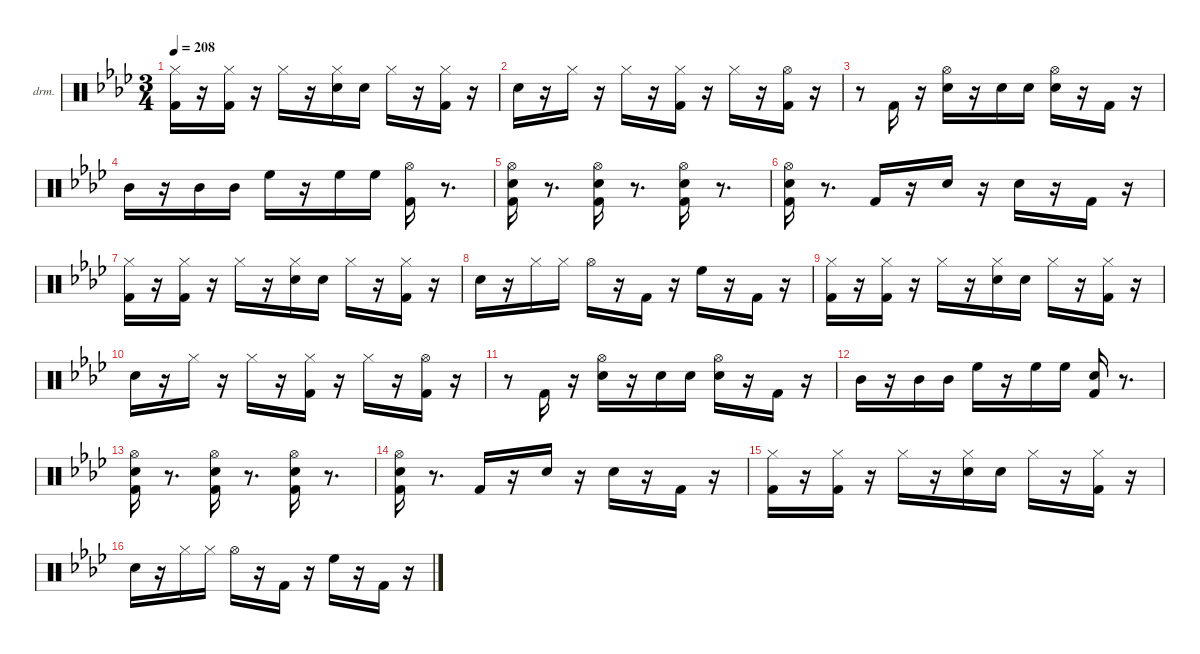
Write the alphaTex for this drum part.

\hideDynamics
\bracketExtendMode nobrackets
\firstSystemTrackNameOrientation horizontal
\otherSystemsTrackNameOrientation horizontal
\track ("EZdrummer 3" "drm.") {instrument percussion}
\staff {score}
\articulation defaults
\ts (3 4)
\tempo 208
\clef neutral
\ks fminor
("Kick (hit) 2"{acc forcenatural} "Hi-Hat (closed)"{acc b}).16{dy ff beam Down} r.16{beam Down} ("Kick (hit) 2"{acc forcenatural} "Hi-Hat (closed)"{acc b}).16{beam Down} r.16{beam Down} "Hi-Hat (closed)"{acc b}.16{dy pp beam Down} r.16{beam Down} ("Snare (hit) 2"{acc forcenatural} "Hi-Hat (closed)"{acc b}).16{dy mf beam Down} "Snare (hit) 2"{acc forcenatural}.16{dy ppp beam Down} "Hi-Hat (closed)"{acc b}.16{dy mf beam Down} r.16{beam Down} ("Kick (hit) 2"{acc forcenatural} "Hi-Hat (closed)"{acc b}).16{dy ff beam Down} r.16{beam Down} |
"Snare (hit) 2"{acc forcenatural}.16{dy fff beam Down} r.16{beam Down} "Hi-Hat (closed)"{acc b}.16{dy mf beam Down} r.16{beam Down} "Hi-Hat (closed)"{acc b}.16{dy fff beam Down} r.16{beam Down} ("Kick (hit) 2"{acc forcenatural} "Hi-Hat (closed)"{acc b}).16{dy ff beam Down} r.16{beam Down} "Hi-Hat (closed)"{acc b}.16{dy fff beam Down} r.16{beam Down} ("Kick (hit) 2"{acc forcenatural} "Hi-Hat (open)"{acc b}).16{dy f beam Down} r.16{beam Down} |
r.8{beam Down} "Kick (hit) 2"{acc forcenatural}.16{dy mf beam Up} r.16{beam Up} ("Snare (hit) 2"{acc forcenatural} "Hi-Hat (open)"{acc b}).16{dy ff beam Down} r.16{beam Down} "Snare (hit) 2"{acc forcenatural}.16{dy pp beam Down} "Snare (hit) 2"{acc forcenatural}.16{dy ppp beam Down} ("Snare (hit) 2"{acc forcenatural} "Hi-Hat (open)"{acc b}).16{dy fff beam Down} r.16{beam Down} "Kick (hit) 2"{acc forcenatural}.16{dy ff beam Up} r.16{beam Up} |
"Mid Tom (hit)"{acc forcenatural}.16{beam Down} r.16{beam Down} "Mid Tom (hit)"{acc forcenatural}.16{beam Up} "Mid Tom (hit)"{acc forcenatural}.16{beam Up} "High Floor Tom (hit)"{acc forcenatural}.16{beam Down} r.16{beam Down} "High Floor Tom (hit)"{acc forcenatural}.16{beam Down} "High Floor Tom (hit)"{acc forcenatural}.16{beam Down} ("Kick (hit) 2"{acc forcenatural} "Hi-Hat (open)"{acc b}).16{beam Down} r.8{d beam Down} |
("Kick (hit) 2"{acc forcenatural} "Snare (hit) 2"{acc forcenatural} "Hi-Hat (open)"{acc b}).16{dy fff beam Down} r.8{d beam Down} ("Kick (hit) 2"{acc forcenatural} "Snare (hit) 2"{acc forcenatural} "Hi-Hat (open)"{acc b}).16{dy mf beam Down} r.8{d beam Down} ("Kick (hit) 2"{acc forcenatural} "Snare (hit) 2"{acc forcenatural} "Hi-Hat (open)"{acc b}).16{dy f beam Down} r.8{d beam Down} |
("Kick (hit) 2"{acc forcenatural} "Snare (hit) 2"{acc forcenatural} "Hi-Hat (open)"{acc b}).16{dy fff beam Down} r.8{d beam Down} "Kick (hit) 2"{acc forcenatural}.16{dy ff beam Up} r.16{beam Up} "Snare (hit) 2"{acc forcenatural}.16{dy f beam Down} r.16{beam Down} "Snare (hit) 2"{acc forcenatural}.16{dy pp beam Down} r.16{beam Down} "Kick (hit) 2"{acc forcenatural}.16{dy p beam Up} r.16{beam Up} |
("Kick (hit) 2"{acc forcenatural} "Hi-Hat (closed)"{acc b}).16{dy ff beam Down} r.16{beam Down} ("Kick (hit) 2"{acc forcenatural} "Hi-Hat (closed)"{acc b}).16{dy mf beam Down} r.16{beam Down} "Hi-Hat (closed)"{acc b}.16{dy pp beam Down} r.16{beam Down} ("Snare (hit) 2"{acc forcenatural} "Hi-Hat (closed)"{acc b}).16{dy mf beam Down} "Snare (hit) 2"{acc forcenatural}.16{dy ppp beam Down} "Hi-Hat (closed)"{acc b}.16{dy mf beam Down} r.16{beam Down} ("Kick (hit) 2"{acc forcenatural} "Hi-Hat (closed)"{acc b}).16{dy ff beam Down} r.16{beam Down} |
"Snare (hit) 2"{acc forcenatural}.16{dy fff beam Down} r.16{beam Down} "Hi-Hat (closed)"{acc b}.16{dy f beam Down} "Hi-Hat (closed)"{acc b}.16{dy mf beam Down} "Hi-Hat (open)"{acc b}.16{dy fff beam Down} r.16{beam Down} "Kick (hit) 2"{acc forcenatural}.16{dy ff beam Up} r.16{beam Up} "High Floor Tom (hit)"{acc forcenatural}.16{dy f beam Down} r.16{beam Down} "Kick (hit) 2"{acc forcenatural}.16{beam Up} r.16{beam Up} |
("Kick (hit) 2"{acc forcenatural} "Hi-Hat (closed)"{acc b}).16{dy ff beam Down} r.16{beam Down} ("Kick (hit) 2"{acc forcenatural} "Hi-Hat (closed)"{acc b}).16{beam Down} r.16{beam Down} "Hi-Hat (closed)"{acc b}.16{dy pp beam Down} r.16{beam Down} ("Snare (hit) 2"{acc forcenatural} "Hi-Hat (closed)"{acc b}).16{dy mf beam Down} "Snare (hit) 2"{acc forcenatural}.16{dy ppp beam Down} "Hi-Hat (closed)"{acc b}.16{dy mf beam Down} r.16{beam Down} ("Kick (hit) 2"{acc forcenatural} "Hi-Hat (closed)"{acc b}).16{dy ff beam Down} r.16{beam Down} |
"Snare (hit) 2"{acc forcenatural}.16{dy fff beam Down} r.16{beam Down} "Hi-Hat (closed)"{acc b}.16{dy mf beam Down} r.16{beam Down} "Hi-Hat (closed)"{acc b}.16{dy fff beam Down} r.16{beam Down} ("Kick (hit) 2"{acc forcenatural} "Hi-Hat (closed)"{acc b}).16{dy ff beam Down} r.16{beam Down} "Hi-Hat (closed)"{acc b}.16{dy fff beam Down} r.16{beam Down} ("Kick (hit) 2"{acc forcenatural} "Hi-Hat (open)"{acc b}).16{dy f beam Down} r.16{beam Down} |
r.8{beam Down} "Kick (hit) 2"{acc forcenatural}.16{dy mf beam Up} r.16{beam Up} ("Snare (hit) 2"{acc forcenatural} "Hi-Hat (open)"{acc b}).16{dy ff beam Down} r.16{beam Down} "Snare (hit) 2"{acc forcenatural}.16{dy pp beam Down} "Snare (hit) 2"{acc forcenatural}.16{dy ppp beam Down} ("Snare (hit) 2"{acc forcenatural} "Hi-Hat (open)"{acc b}).16{dy fff beam Down} r.16{beam Down} "Kick (hit) 2"{acc forcenatural}.16{dy ff beam Up} r.16{beam Up} |
"Mid Tom (hit)"{acc forcenatural}.16{beam Down} r.16{beam Down} "Mid Tom (hit)"{acc forcenatural}.16{beam Up} "Mid Tom (hit)"{acc forcenatural}.16{beam Up} "High Floor Tom (hit)"{acc forcenatural}.16{beam Down} r.16{beam Down} "High Floor Tom (hit)"{acc forcenatural}.16{beam Down} "High Floor Tom (hit)"{acc forcenatural}.16{beam Down} ("Kick (hit) 2"{acc forcenatural} "Snare (hit) 2"{acc forcenatural}).16{beam Up} r.8{d beam Up} |
("Kick (hit) 2"{acc forcenatural} "Snare (hit) 2"{acc forcenatural} "Hi-Hat (open)"{acc b}).16{dy fff beam Down} r.8{d beam Down} ("Kick (hit) 2"{acc forcenatural} "Snare (hit) 2"{acc forcenatural} "Hi-Hat (open)"{acc b}).16{dy mf beam Down} r.8{d beam Down} ("Kick (hit) 2"{acc forcenatural} "Snare (hit) 2"{acc forcenatural} "Hi-Hat (open)"{acc b}).16{dy f beam Down} r.8{d beam Down} |
("Kick (hit) 2"{acc forcenatural} "Snare (hit) 2"{acc forcenatural} "Hi-Hat (open)"{acc b}).16{dy fff beam Down} r.8{d beam Down} "Kick (hit) 2"{acc forcenatural}.16{dy ff beam Up} r.16{beam Up} "Snare (hit) 2"{acc forcenatural}.16{dy f beam Down} r.16{beam Down} "Snare (hit) 2"{acc forcenatural}.16{dy pp beam Down} r.16{beam Down} "Kick (hit) 2"{acc forcenatural}.16{dy p beam Up} r.16{beam Up} |
("Kick (hit) 2"{acc forcenatural} "Hi-Hat (closed)"{acc b}).16{dy ff beam Down} r.16{beam Down} ("Kick (hit) 2"{acc forcenatural} "Hi-Hat (closed)"{acc b}).16{beam Down} r.16{beam Down} "Hi-Hat (closed)"{acc b}.16{dy pp beam Down} r.16{beam Down} ("Snare (hit) 2"{acc forcenatural} "Hi-Hat (closed)"{acc b}).16{dy mf beam Down} "Snare (hit) 2"{acc forcenatural}.16{dy ppp beam Down} "Hi-Hat (closed)"{acc b}.16{dy mf beam Down} r.16{beam Down} ("Kick (hit) 2"{acc forcenatural} "Hi-Hat (closed)"{acc b}).16{dy ff beam Down} r.16{beam Down} |
"Snare (hit) 2"{acc forcenatural}.16{dy fff beam Down} r.16{beam Down} "Hi-Hat (closed)"{acc b}.16{dy f beam Down} "Hi-Hat (closed)"{acc b}.16{dy mf beam Down} "Hi-Hat (open)"{acc b}.16{dy fff beam Down} r.16{beam Down} "Kick (hit) 2"{acc forcenatural}.16{dy ff beam Up} r.16{beam Up} "High Floor Tom (hit)"{acc forcenatural}.16{dy f beam Down} r.16{beam Down} "Kick (hit) 2"{acc forcenatural}.16{beam Up} r.16{beam Up}
